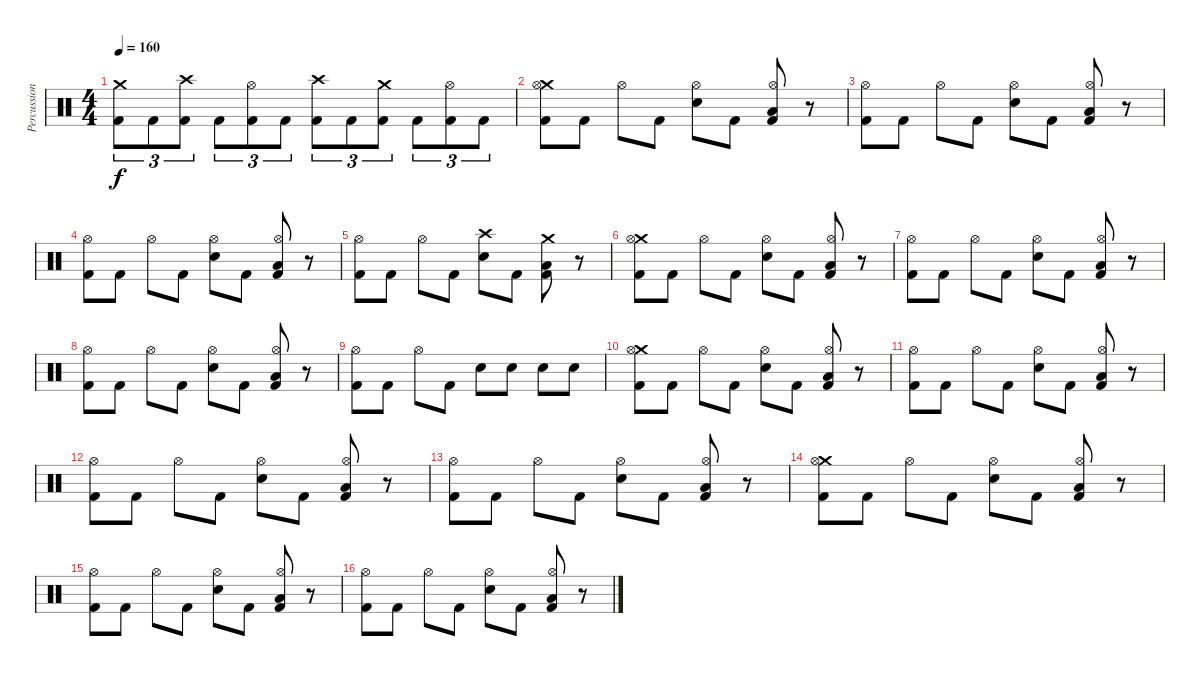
\track ("Percussioni" "Percussion") {instrument percussion}
\staff {score}
\articulation defaults
\ts (4 4)
\tempo 160
\clef neutral
\ks c
("Crash medium (hit)" "Kick (hit) 2").8{tu (3 2) dy f} "Kick (hit) 2".8{tu (3 2)} ("Crash high (hit)" "Kick (hit) 2").8{tu (3 2)} "Kick (hit) 2".8{tu (3 2)} ("Hi-Hat (open)" "Kick (hit) 2").8{tu (3 2)} "Kick (hit) 2".8{tu (3 2)} ("Crash high (hit)" "Kick (hit) 2").8{tu (3 2)} "Kick (hit) 2".8{tu (3 2)} ("Crash medium (hit)" "Kick (hit) 2").8{tu (3 2)} "Kick (hit) 2".8{tu (3 2)} ("Hi-Hat (open)" "Kick (hit) 2").8{tu (3 2)} "Kick (hit) 2".8{tu (3 2)} |
("Crash medium (hit)" "Hi-Hat (open)" "Kick (hit) 2").8 "Kick (hit) 2".8 "Hi-Hat (open)".8 "Kick (hit) 2".8 ("Hi-Hat (open)" "Snare (hit) 2").8 "Kick (hit) 2".8 ("Hi-Hat (open)" "Low Floor Tom (hit)" "Kick (hit) 2").8 r.8 |
("Hi-Hat (open)" "Kick (hit) 2").8 "Kick (hit) 2".8 "Hi-Hat (open)".8 "Kick (hit) 2".8 ("Hi-Hat (open)" "Snare (hit) 2").8 "Kick (hit) 2".8 ("Hi-Hat (open)" "Low Floor Tom (hit)" "Kick (hit) 2").8 r.8 |
("Hi-Hat (open)" "Kick (hit) 2").8 "Kick (hit) 2".8 "Hi-Hat (open)".8 "Kick (hit) 2".8 ("Hi-Hat (open)" "Snare (hit) 2").8 "Kick (hit) 2".8 ("Hi-Hat (open)" "Low Floor Tom (hit)" "Kick (hit) 2").8 r.8 |
("Hi-Hat (open)" "Kick (hit) 2").8 "Kick (hit) 2".8 "Hi-Hat (open)".8 "Kick (hit) 2".8 ("Crash high (hit)" "Snare (hit) 2").8 "Kick (hit) 2".8 ("Crash medium (hit)" "Low Floor Tom (hit)" "Kick (hit) 2").8 r.8 |
("Crash medium (hit)" "Hi-Hat (open)" "Kick (hit) 2").8 "Kick (hit) 2".8 "Hi-Hat (open)".8 "Kick (hit) 2".8 ("Hi-Hat (open)" "Snare (hit) 2").8 "Kick (hit) 2".8 ("Hi-Hat (open)" "Low Floor Tom (hit)" "Kick (hit) 2").8 r.8 |
("Hi-Hat (open)" "Kick (hit) 2").8 "Kick (hit) 2".8 "Hi-Hat (open)".8 "Kick (hit) 2".8 ("Hi-Hat (open)" "Snare (hit) 2").8 "Kick (hit) 2".8 ("Hi-Hat (open)" "Low Floor Tom (hit)" "Kick (hit) 2").8 r.8 |
("Hi-Hat (open)" "Kick (hit) 2").8 "Kick (hit) 2".8 "Hi-Hat (open)".8 "Kick (hit) 2".8 ("Hi-Hat (open)" "Snare (hit) 2").8 "Kick (hit) 2".8 ("Hi-Hat (open)" "Low Floor Tom (hit)" "Kick (hit) 2").8 r.8 |
("Hi-Hat (open)" "Kick (hit) 2").8 "Kick (hit) 2".8 "Hi-Hat (open)".8 "Kick (hit) 2".8 "Snare (hit) 2".8 "Snare (hit) 2".8 "Snare (hit) 2".8 "Snare (hit) 2".8 |
("Crash medium (hit)" "Hi-Hat (open)" "Kick (hit) 2").8 "Kick (hit) 2".8 "Hi-Hat (open)".8 "Kick (hit) 2".8 ("Hi-Hat (open)" "Snare (hit) 2").8 "Kick (hit) 2".8 ("Hi-Hat (open)" "Low Floor Tom (hit)" "Kick (hit) 2").8 r.8 |
("Hi-Hat (open)" "Kick (hit) 2").8 "Kick (hit) 2".8 "Hi-Hat (open)".8 "Kick (hit) 2".8 ("Hi-Hat (open)" "Snare (hit) 2").8 "Kick (hit) 2".8 ("Hi-Hat (open)" "Low Floor Tom (hit)" "Kick (hit) 2").8 r.8 |
("Hi-Hat (open)" "Kick (hit) 2").8 "Kick (hit) 2".8 "Hi-Hat (open)".8 "Kick (hit) 2".8 ("Hi-Hat (open)" "Snare (hit) 2").8 "Kick (hit) 2".8 ("Hi-Hat (open)" "Low Floor Tom (hit)" "Kick (hit) 2").8 r.8 |
("Hi-Hat (open)" "Kick (hit) 2").8 "Kick (hit) 2".8 "Hi-Hat (open)".8 "Kick (hit) 2".8 ("Hi-Hat (open)" "Snare (hit) 2").8 "Kick (hit) 2".8 ("Hi-Hat (open)" "Low Floor Tom (hit)" "Kick (hit) 2").8 r.8 |
("Crash medium (hit)" "Hi-Hat (open)" "Kick (hit) 2").8 "Kick (hit) 2".8 "Hi-Hat (open)".8 "Kick (hit) 2".8 ("Hi-Hat (open)" "Snare (hit) 2").8 "Kick (hit) 2".8 ("Hi-Hat (open)" "Low Floor Tom (hit)" "Kick (hit) 2").8 r.8 |
("Hi-Hat (open)" "Kick (hit) 2").8 "Kick (hit) 2".8 "Hi-Hat (open)".8 "Kick (hit) 2".8 ("Hi-Hat (open)" "Snare (hit) 2").8 "Kick (hit) 2".8 ("Hi-Hat (open)" "Low Floor Tom (hit)" "Kick (hit) 2").8 r.8 |
("Hi-Hat (open)" "Kick (hit) 2").8 "Kick (hit) 2".8 "Hi-Hat (open)".8 "Kick (hit) 2".8 ("Hi-Hat (open)" "Snare (hit) 2").8 "Kick (hit) 2".8 ("Hi-Hat (open)" "Low Floor Tom (hit)" "Kick (hit) 2").8 r.8
